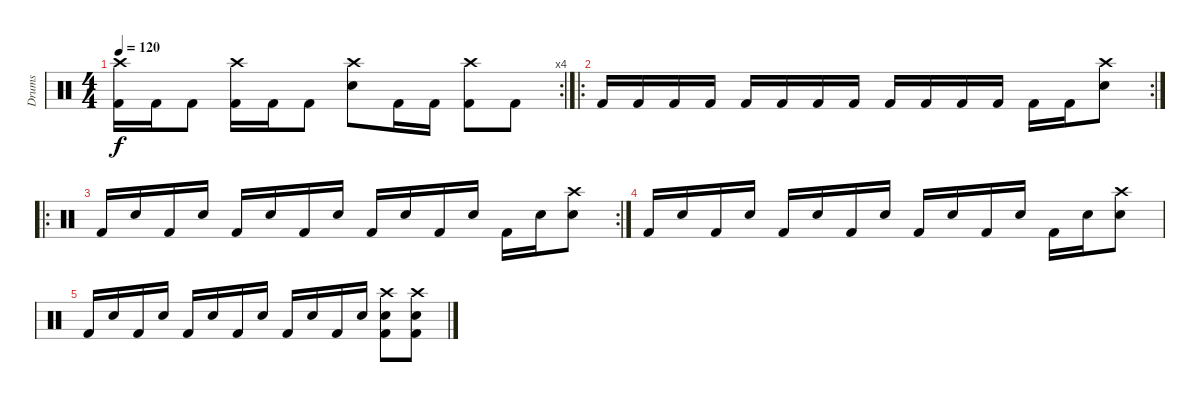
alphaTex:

\track ("Drums" "Drums") {instrument percussion}
\staff
\articulation defaults
\rc 4
\ts (4 4)
\tempo 120
\clef neutral
\ks c
("Crash high (hit)" "Kick (hit) 2").16{dy f} "Kick (hit) 2".16 "Kick (hit) 2".8 ("Crash high (hit)" "Kick (hit) 2").16 "Kick (hit) 2".16 "Kick (hit) 2".8 ("Crash high (hit)" "Electric Snare (hit)").8 "Kick (hit) 2".16 "Kick (hit) 2".16 ("Crash high (hit)" "Kick (hit) 2").8 "Kick (hit) 2".8 |
\ro
\rc 2 "Kick (hit) 2".16 "Kick (hit) 2".16 "Kick (hit) 2".16 "Kick (hit) 2".16 "Kick (hit) 2".16 "Kick (hit) 2".16 "Kick (hit) 2".16 "Kick (hit) 2".16 "Kick (hit) 2".16 "Kick (hit) 2".16 "Kick (hit) 2".16 "Kick (hit) 2".16 "Kick (hit) 2".16 "Kick (hit) 2".16
("Crash high (hit)" "Electric Snare (hit)").8 |
\ro
\rc 2 "Kick (hit) 2".16 "Snare (hit) 2".16 "Kick (hit) 2".16 "Snare (hit) 2".16 "Kick (hit) 2".16 "Snare (hit) 2".16 "Kick (hit) 2".16 "Snare (hit) 2".16 "Kick (hit) 2".16 "Snare (hit) 2".16 "Kick (hit) 2".16 "Snare (hit) 2".16 "Kick (hit) 2".16 "Snare (hit) 2".16
("Crash high (hit)" "Electric Snare (hit)").8 |
"Kick (hit) 2".16 "Snare (hit) 2".16 "Kick (hit) 2".16 "Snare (hit) 2".16 "Kick (hit) 2".16 "Snare (hit) 2".16 "Kick (hit) 2".16 "Snare (hit) 2".16 "Kick (hit) 2".16 "Snare (hit) 2".16 "Kick (hit) 2".16 "Snare (hit) 2".16 "Kick (hit) 2".16 "Snare (hit) 2".16 ("Crash high (hit)" "Electric Snare (hit)").8 |
"Kick (hit) 2".16 "Snare (hit) 2".16 "Kick (hit) 2".16 "Snare (hit) 2".16 "Kick (hit) 2".16 "Snare (hit) 2".16 "Kick (hit) 2".16 "Snare (hit) 2".16 "Kick (hit) 2".16 "Snare (hit) 2".16 "Kick (hit) 2".16 "Snare (hit) 2".16 ("Crash high (hit)" "Electric Snare (hit)" "Kick (hit) 2").8 ("Crash high (hit)" "Electric Snare (hit)" "Kick (hit) 2").8
